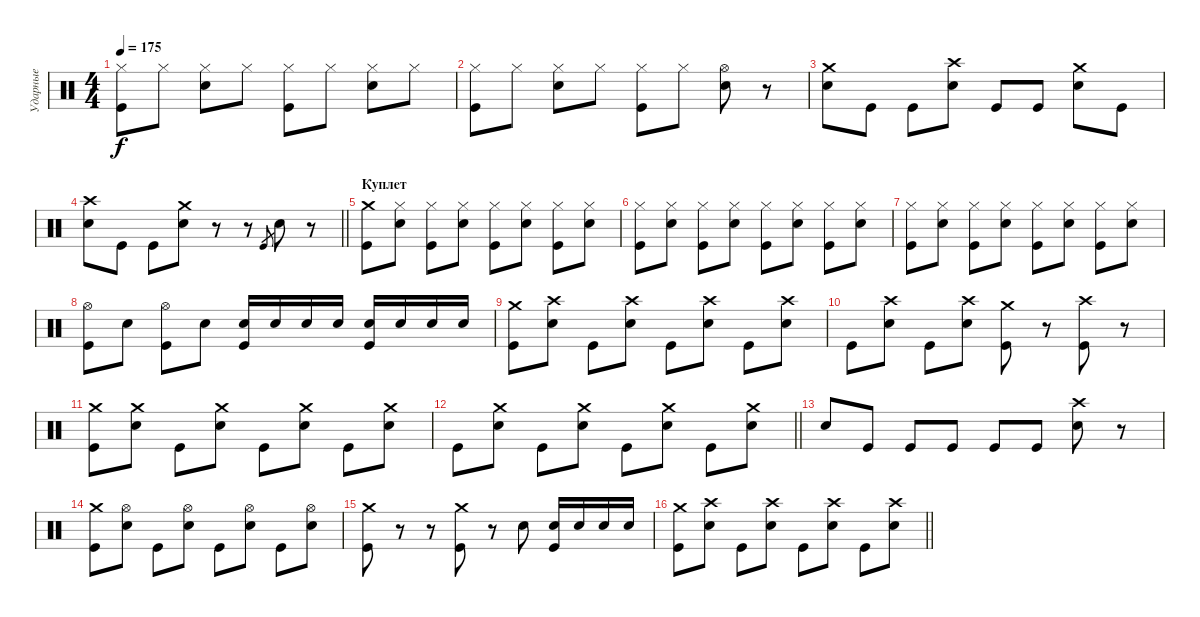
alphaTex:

\track ("Ударные" "Ударные") {instrument percussion}
\staff {score}
\articulation defaults
\ts (4 4)
\tempo 175
\clef neutral
\ks c
("Hi-Hat (closed)" "Kick (hit)").8{dy f} "Hi-Hat (closed)".8 ("Hi-Hat (closed)" "Electric Snare (hit)").8 "Hi-Hat (closed)".8 ("Hi-Hat (closed)" "Kick (hit)").8 "Hi-Hat (closed)".8 ("Hi-Hat (closed)" "Electric Snare (hit)").8 "Hi-Hat (closed)".8 |
("Hi-Hat (closed)" "Kick (hit)").8 "Hi-Hat (closed)".8 ("Hi-Hat (closed)" "Electric Snare (hit)").8 "Hi-Hat (closed)".8 ("Hi-Hat (closed)" "Kick (hit)").8 "Hi-Hat (closed)".8 ("Hi-Hat (open)" "Electric Snare (hit)").8 r.8 |
("Crash medium (hit)" "Electric Snare (hit)").8 "Kick (hit)".8 "Kick (hit)".8 ("Crash high (hit)" "Electric Snare (hit)").8 "Kick (hit)".8 "Kick (hit)".8 ("Crash medium (hit)" "Electric Snare (hit)").8 "Kick (hit)".8 |
\barLineRight lightlight
("Crash high (hit)" "Electric Snare (hit)").8 "Kick (hit)".8 "Kick (hit)".8 ("Crash medium (hit)" "Electric Snare (hit)").8 r.8 r.8 "Kick (hit)".8{gr} "Electric Snare (hit)".8 r.8 |
\section ("" "Куплет")
("Crash medium (hit)" "Kick (hit)").8 ("Hi-Hat (closed)" "Electric Snare (hit)").8 ("Hi-Hat (closed)" "Kick (hit)").8 ("Hi-Hat (closed)" "Electric Snare (hit)").8 ("Hi-Hat (closed)" "Kick (hit)").8 ("Hi-Hat (closed)" "Electric Snare (hit)").8 ("Hi-Hat (closed)" "Kick (hit)").8 ("Hi-Hat (closed)" "Electric Snare (hit)").8 |
("Hi-Hat (closed)" "Kick (hit)").8 ("Hi-Hat (closed)" "Electric Snare (hit)").8 ("Hi-Hat (closed)" "Kick (hit)").8 ("Hi-Hat (closed)" "Electric Snare (hit)").8 ("Hi-Hat (closed)" "Kick (hit)").8 ("Hi-Hat (closed)" "Electric Snare (hit)").8 ("Hi-Hat (closed)" "Kick (hit)").8 ("Hi-Hat (closed)" "Electric Snare (hit)").8 |
("Hi-Hat (closed)" "Kick (hit)").8 ("Hi-Hat (closed)" "Electric Snare (hit)").8 ("Hi-Hat (closed)" "Kick (hit)").8 ("Hi-Hat (closed)" "Electric Snare (hit)").8 ("Hi-Hat (closed)" "Kick (hit)").8 ("Hi-Hat (closed)" "Electric Snare (hit)").8 ("Hi-Hat (closed)" "Kick (hit)").8 ("Hi-Hat (closed)" "Electric Snare (hit)").8 |
("Hi-Hat (open)" "Kick (hit)").8 "Electric Snare (hit)".8 ("Hi-Hat (open)" "Kick (hit)").8 "Electric Snare (hit)".8 ("Electric Snare (hit)" "Kick (hit)").16 "Electric Snare (hit)".16 "Electric Snare (hit)".16 "Electric Snare (hit)".16 ("Electric Snare (hit)" "Kick (hit)").16 "Electric Snare (hit)".16 "Electric Snare (hit)".16 "Electric Snare (hit)".16 |
("Crash medium (hit)" "Kick (hit)").8 ("Crash high (hit)" "Electric Snare (hit)").8 "Kick (hit)".8 ("Crash high (hit)" "Electric Snare (hit)").8 "Kick (hit)".8 ("Crash high (hit)" "Electric Snare (hit)").8 "Kick (hit)".8 ("Crash high (hit)" "Electric Snare (hit)").8 |
"Kick (hit)".8 ("Crash high (hit)" "Electric Snare (hit)").8 "Kick (hit)".8 ("Crash high (hit)" "Electric Snare (hit)").8 ("Crash medium (hit)" "Kick (hit)").8 r.8 ("Crash high (hit)" "Kick (hit)").8 r.8 |
("Crash medium (hit)" "Kick (hit)").8 ("Crash medium (hit)" "Electric Snare (hit)").8 "Kick (hit)".8 ("Crash medium (hit)" "Electric Snare (hit)").8 "Kick (hit)".8 ("Crash medium (hit)" "Electric Snare (hit)").8 "Kick (hit)".8 ("Crash medium (hit)" "Electric Snare (hit)").8 |
\barLineRight lightlight "Kick (hit)".8
("Crash medium (hit)" "Electric Snare (hit)").8 "Kick (hit)".8 ("Crash medium (hit)" "Electric Snare (hit)").8 "Kick (hit)".8 ("Crash medium (hit)" "Electric Snare (hit)").8 "Kick (hit)".8 ("Crash medium (hit)" "Electric Snare (hit)").8 |
\section ("" " ")
"Electric Snare (hit)".8 "Kick (hit)".8 "Kick (hit)".8 "Kick (hit)".8 "Kick (hit)".8 "Kick (hit)".8 ("Crash high (hit)" "Electric Snare (hit)").8 r.8 |
("Crash medium (hit)" "Kick (hit)").8 ("Hi-Hat (open)" "Electric Snare (hit)").8 "Kick (hit)".8 ("Hi-Hat (open)" "Electric Snare (hit)").8 "Kick (hit)".8 ("Hi-Hat (open)" "Electric Snare (hit)").8 "Kick (hit)".8 ("Hi-Hat (open)" "Electric Snare (hit)").8 |
("Crash medium (hit)" "Kick (hit)").8 r.8 r.8 ("Crash medium (hit)" "Kick (hit)").8 r.8 "Electric Snare (hit)".8 ("Electric Snare (hit)" "Kick (hit)").16 "Electric Snare (hit)".16 "Electric Snare (hit)".16 "Electric Snare (hit)".16 |
\barLineRight lightlight
("Crash medium (hit)" "Kick (hit)").8 ("Crash high (hit)" "Electric Snare (hit)").8 "Kick (hit)".8 ("Crash high (hit)" "Electric Snare (hit)").8 "Kick (hit)".8 ("Crash high (hit)" "Electric Snare (hit)").8 "Kick (hit)".8 ("Crash high (hit)" "Electric Snare (hit)").8
